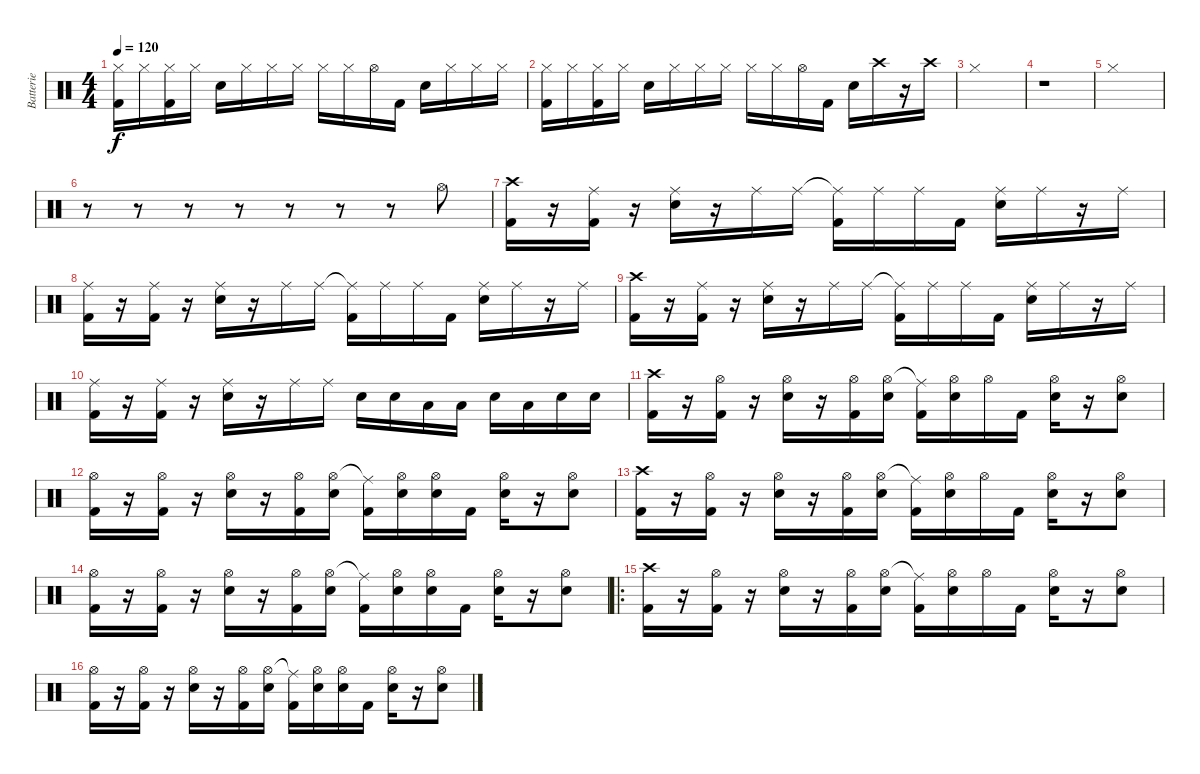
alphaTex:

\track ("Batterie" "Batterie") {instrument percussion}
\staff {score}
\articulation defaults
\ts (4 4)
\tempo 120
\clef neutral
\ks c
("Hi-Hat (closed)" "Kick (hit) 2").16{dy f} "Hi-Hat (closed)".16 ("Hi-Hat (closed)" "Kick (hit) 2").16 "Hi-Hat (closed)".16 "Snare (hit) 2".16 "Hi-Hat (closed)".16 "Hi-Hat (closed)".16 "Hi-Hat (closed)".16 "Hi-Hat (closed)".16 "Hi-Hat (closed)".16 "Hi-Hat (open)".16 "Kick (hit) 2".16 "Snare (hit) 2".16 "Hi-Hat (closed)".16 "Hi-Hat (closed)".16 "Hi-Hat (closed)".16 |
("Hi-Hat (closed)" "Kick (hit) 2").16 "Hi-Hat (closed)".16 ("Hi-Hat (closed)" "Kick (hit) 2").16 "Hi-Hat (closed)".16 "Snare (hit) 2".16 "Hi-Hat (closed)".16 "Hi-Hat (closed)".16 "Hi-Hat (closed)".16 "Hi-Hat (closed)".16 "Hi-Hat (closed)".16 "Hi-Hat (open)".16 "Kick (hit) 2".16 "Snare (hit) 2".16 "Crash high (hit)".16 r.16 "Crash high (hit)".16 |
"Hi-Hat (closed)".1 |
r.1 |
"Hi-Hat (closed)".1 |
r.8 r.8 r.8 r.8 r.8 r.8 r.8 "Hi-Hat (open)".8 |
("Crash high (hit)" "Kick (hit) 2").16 r.16 ("Ride (middle)" "Kick (hit) 2").16 r.16 ("Ride (middle)" "Snare (hit) 2").16 r.16 "Ride (middle)".16 "Ride (middle)".16 ("Ride (middle)"{t} "Kick (hit) 2").16 "Ride (middle)".16 "Ride (middle)".16 "Kick (hit) 2".16 ("Ride (middle)" "Snare (hit) 2").16 "Ride (middle)".16 r.16 "Ride (middle)".16 |
("Ride (middle)" "Kick (hit) 2").16 r.16 ("Ride (middle)" "Kick (hit) 2").16 r.16 ("Ride (middle)" "Snare (hit) 2").16 r.16 "Ride (middle)".16 "Ride (middle)".16 ("Ride (middle)"{t} "Kick (hit) 2").16 "Ride (middle)".16 "Ride (middle)".16 "Kick (hit) 2".16 ("Ride (middle)" "Snare (hit) 2").16 "Ride (middle)".16 r.16 "Ride (middle)".16 |
("Crash high (hit)" "Kick (hit) 2").16 r.16 ("Ride (middle)" "Kick (hit) 2").16 r.16 ("Ride (middle)" "Snare (hit) 2").16 r.16 "Ride (middle)".16 "Ride (middle)".16 ("Ride (middle)"{t} "Kick (hit) 2").16 "Ride (middle)".16 "Ride (middle)".16 "Kick (hit) 2".16 ("Ride (middle)" "Snare (hit) 2").16 "Ride (middle)".16 r.16 "Ride (middle)".16 |
("Ride (middle)" "Kick (hit) 2").16 r.16 ("Ride (middle)" "Kick (hit) 2").16 r.16 ("Ride (middle)" "Snare (hit) 2").16 r.16 "Ride (middle)".16 "Ride (middle)".16 "Snare (hit) 2".16 "Snare (hit) 2".16 "Low Tom (hit)".16 "Low Tom (hit)".16 "Snare (hit) 2".16 "Low Tom (hit)".16 "Snare (hit) 2".16 "Snare (hit) 2".16 |
("Crash high (hit)" "Kick (hit) 2").16 r.16 ("Hi-Hat (open)" "Kick (hit) 2").16 r.16 ("Hi-Hat (open)" "Snare (hit) 2").16 r.16 ("Hi-Hat (open)" "Kick (hit) 2").16 ("Hi-Hat (open)" "Snare (hit) 2").16 ("Ride (middle)"{t} "Kick (hit) 2").16 ("Hi-Hat (open)" "Snare (hit) 2").16 "Hi-Hat (open)".16 "Kick (hit) 2".16 ("Hi-Hat (open)" "Snare (hit) 2").16 r.16 ("Hi-Hat (open)" "Snare (hit) 2").8 |
("Hi-Hat (open)" "Kick (hit) 2").16 r.16 ("Hi-Hat (open)" "Kick (hit) 2").16 r.16 ("Hi-Hat (open)" "Snare (hit) 2").16 r.16 ("Hi-Hat (open)" "Kick (hit) 2").16 ("Hi-Hat (open)" "Snare (hit) 2").16 ("Ride (middle)"{t} "Kick (hit) 2").16 ("Hi-Hat (open)" "Snare (hit) 2").16 ("Hi-Hat (open)" "Snare (hit) 2").16 "Kick (hit) 2".16 ("Hi-Hat (open)" "Snare (hit) 2").16 r.16 ("Hi-Hat (open)" "Snare (hit) 2").8 |
("Crash high (hit)" "Kick (hit) 2").16 r.16 ("Hi-Hat (open)" "Kick (hit) 2").16 r.16 ("Hi-Hat (open)" "Snare (hit) 2").16 r.16 ("Hi-Hat (open)" "Kick (hit) 2").16 ("Hi-Hat (open)" "Snare (hit) 2").16 ("Ride (middle)"{t} "Kick (hit) 2").16 ("Hi-Hat (open)" "Snare (hit) 2").16 "Hi-Hat (open)".16 "Kick (hit) 2".16 ("Hi-Hat (open)" "Snare (hit) 2").16 r.16 ("Hi-Hat (open)" "Snare (hit) 2").8 |
("Hi-Hat (open)" "Kick (hit) 2").16 r.16 ("Hi-Hat (open)" "Kick (hit) 2").16 r.16 ("Hi-Hat (open)" "Snare (hit) 2").16 r.16 ("Hi-Hat (open)" "Kick (hit) 2").16 ("Hi-Hat (open)" "Snare (hit) 2").16 ("Ride (middle)"{t} "Kick (hit) 2").16 ("Hi-Hat (open)" "Snare (hit) 2").16 ("Hi-Hat (open)" "Snare (hit) 2").16 "Kick (hit) 2".16 ("Hi-Hat (open)" "Snare (hit) 2").16 r.16 ("Hi-Hat (open)" "Snare (hit) 2").8 |
\ro
("Crash high (hit)" "Kick (hit) 2").16 r.16 ("Hi-Hat (open)" "Kick (hit) 2").16 r.16 ("Hi-Hat (open)" "Snare (hit) 2").16 r.16 ("Hi-Hat (open)" "Kick (hit) 2").16 ("Hi-Hat (open)" "Snare (hit) 2").16 ("Ride (middle)"{t} "Kick (hit) 2").16 ("Hi-Hat (open)" "Snare (hit) 2").16 "Hi-Hat (open)".16 "Kick (hit) 2".16 ("Hi-Hat (open)" "Snare (hit) 2").16 r.16 ("Hi-Hat (open)" "Snare (hit) 2").8 |
("Hi-Hat (open)" "Kick (hit) 2").16 r.16 ("Hi-Hat (open)" "Kick (hit) 2").16 r.16 ("Hi-Hat (open)" "Snare (hit) 2").16 r.16 ("Hi-Hat (open)" "Kick (hit) 2").16 ("Hi-Hat (open)" "Snare (hit) 2").16 ("Ride (middle)"{t} "Kick (hit) 2").16 ("Hi-Hat (open)" "Snare (hit) 2").16 ("Hi-Hat (open)" "Snare (hit) 2").16 "Kick (hit) 2".16 ("Hi-Hat (open)" "Snare (hit) 2").16 r.16 ("Hi-Hat (open)" "Snare (hit) 2").8
